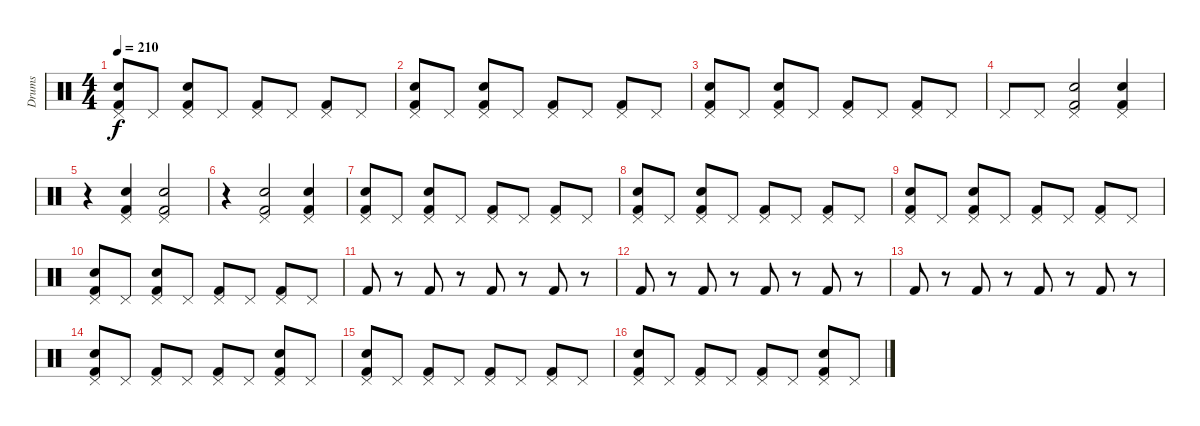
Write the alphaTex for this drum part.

\track ("Drums" "Drums") {instrument percussion}
\staff {score}
\articulation defaults
\ts (4 4)
\tempo 210
\clef neutral
\ks c
("Kick (hit) 2" "Pedal Hi-Hat (hit)" "Snare (hit) 2").8{dy f} "Pedal Hi-Hat (hit)".8 ("Kick (hit) 2" "Pedal Hi-Hat (hit)" "Snare (hit) 2").8 "Pedal Hi-Hat (hit)".8 ("Kick (hit) 2" "Pedal Hi-Hat (hit)").8 "Pedal Hi-Hat (hit)".8 ("Kick (hit) 2" "Pedal Hi-Hat (hit)").8 "Pedal Hi-Hat (hit)".8 |
("Kick (hit) 2" "Pedal Hi-Hat (hit)" "Snare (hit) 2").8 "Pedal Hi-Hat (hit)".8 ("Kick (hit) 2" "Pedal Hi-Hat (hit)" "Snare (hit) 2").8 "Pedal Hi-Hat (hit)".8 ("Kick (hit) 2" "Pedal Hi-Hat (hit)").8 "Pedal Hi-Hat (hit)".8 ("Kick (hit) 2" "Pedal Hi-Hat (hit)").8 "Pedal Hi-Hat (hit)".8 |
("Kick (hit) 2" "Pedal Hi-Hat (hit)" "Snare (hit) 2").8 "Pedal Hi-Hat (hit)".8 ("Kick (hit) 2" "Pedal Hi-Hat (hit)" "Snare (hit) 2").8 "Pedal Hi-Hat (hit)".8 ("Kick (hit) 2" "Pedal Hi-Hat (hit)").8 "Pedal Hi-Hat (hit)".8 ("Kick (hit) 2" "Pedal Hi-Hat (hit)").8 "Pedal Hi-Hat (hit)".8 |
"Pedal Hi-Hat (hit)".8 "Pedal Hi-Hat (hit)".8 ("Kick (hit) 2" "Pedal Hi-Hat (hit)" "Snare (hit) 2").2 ("Kick (hit) 2" "Pedal Hi-Hat (hit)" "Snare (hit) 2").4 |
r.4 ("Kick (hit) 2" "Pedal Hi-Hat (hit)" "Snare (hit) 2").4 ("Kick (hit) 2" "Pedal Hi-Hat (hit)" "Snare (hit) 2").2 |
r.4 ("Kick (hit) 2" "Pedal Hi-Hat (hit)" "Snare (hit) 2").2 ("Kick (hit) 2" "Pedal Hi-Hat (hit)" "Snare (hit) 2").4 |
("Kick (hit) 2" "Pedal Hi-Hat (hit)" "Snare (hit) 2").8 "Pedal Hi-Hat (hit)".8 ("Kick (hit) 2" "Pedal Hi-Hat (hit)" "Snare (hit) 2").8 "Pedal Hi-Hat (hit)".8 ("Kick (hit) 2" "Pedal Hi-Hat (hit)").8 "Pedal Hi-Hat (hit)".8 ("Kick (hit) 2" "Pedal Hi-Hat (hit)").8 "Pedal Hi-Hat (hit)".8 |
("Kick (hit) 2" "Pedal Hi-Hat (hit)" "Snare (hit) 2").8 "Pedal Hi-Hat (hit)".8 ("Kick (hit) 2" "Pedal Hi-Hat (hit)" "Snare (hit) 2").8 "Pedal Hi-Hat (hit)".8 ("Kick (hit) 2" "Pedal Hi-Hat (hit)").8 "Pedal Hi-Hat (hit)".8 ("Kick (hit) 2" "Pedal Hi-Hat (hit)").8 "Pedal Hi-Hat (hit)".8 |
("Kick (hit) 2" "Pedal Hi-Hat (hit)" "Snare (hit) 2").8 "Pedal Hi-Hat (hit)".8 ("Kick (hit) 2" "Pedal Hi-Hat (hit)" "Snare (hit) 2").8 "Pedal Hi-Hat (hit)".8 ("Kick (hit) 2" "Pedal Hi-Hat (hit)").8 "Pedal Hi-Hat (hit)".8 ("Kick (hit) 2" "Pedal Hi-Hat (hit)").8 "Pedal Hi-Hat (hit)".8 |
("Kick (hit) 2" "Pedal Hi-Hat (hit)" "Snare (hit) 2").8 "Pedal Hi-Hat (hit)".8 ("Kick (hit) 2" "Pedal Hi-Hat (hit)" "Snare (hit) 2").8 "Pedal Hi-Hat (hit)".8 ("Kick (hit) 2" "Pedal Hi-Hat (hit)").8 "Pedal Hi-Hat (hit)".8 ("Kick (hit) 2" "Pedal Hi-Hat (hit)").8 "Pedal Hi-Hat (hit)".8 |
"Kick (hit) 2".8 r.8 "Kick (hit) 2".8 r.8 "Kick (hit) 2".8 r.8 "Kick (hit) 2".8 r.8 |
"Kick (hit) 2".8 r.8 "Kick (hit) 2".8 r.8 "Kick (hit) 2".8 r.8 "Kick (hit) 2".8 r.8 |
"Kick (hit) 2".8 r.8 "Kick (hit) 2".8 r.8 "Kick (hit) 2".8 r.8 "Kick (hit) 2".8 r.8 |
("Kick (hit) 2" "Pedal Hi-Hat (hit)" "Snare (hit) 2").8 "Pedal Hi-Hat (hit)".8 ("Kick (hit) 2" "Pedal Hi-Hat (hit)").8 "Pedal Hi-Hat (hit)".8 ("Kick (hit) 2" "Pedal Hi-Hat (hit)").8 "Pedal Hi-Hat (hit)".8 ("Kick (hit) 2" "Pedal Hi-Hat (hit)" "Snare (hit) 2").8 "Pedal Hi-Hat (hit)".8 |
("Kick (hit) 2" "Pedal Hi-Hat (hit)" "Snare (hit) 2").8 "Pedal Hi-Hat (hit)".8 ("Kick (hit) 2" "Pedal Hi-Hat (hit)").8 "Pedal Hi-Hat (hit)".8 ("Kick (hit) 2" "Pedal Hi-Hat (hit)").8 "Pedal Hi-Hat (hit)".8 ("Kick (hit) 2" "Pedal Hi-Hat (hit)").8 "Pedal Hi-Hat (hit)".8 |
("Kick (hit) 2" "Pedal Hi-Hat (hit)" "Snare (hit) 2").8 "Pedal Hi-Hat (hit)".8 ("Kick (hit) 2" "Pedal Hi-Hat (hit)").8 "Pedal Hi-Hat (hit)".8 ("Kick (hit) 2" "Pedal Hi-Hat (hit)").8 "Pedal Hi-Hat (hit)".8 ("Kick (hit) 2" "Pedal Hi-Hat (hit)" "Snare (hit) 2").8 "Pedal Hi-Hat (hit)".8
